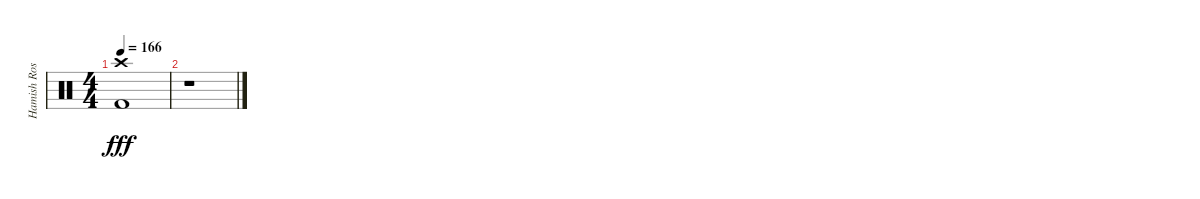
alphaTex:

\track ("Hamish Rosser" "Hamish Ros") {instrument percussion}
\staff {score}
\articulation defaults
\ts (4 4)
\tempo 166
\clef neutral
\ks c
("Crash high (hit)" "Kick (hit) 2").1{dy fff} |
r.1
